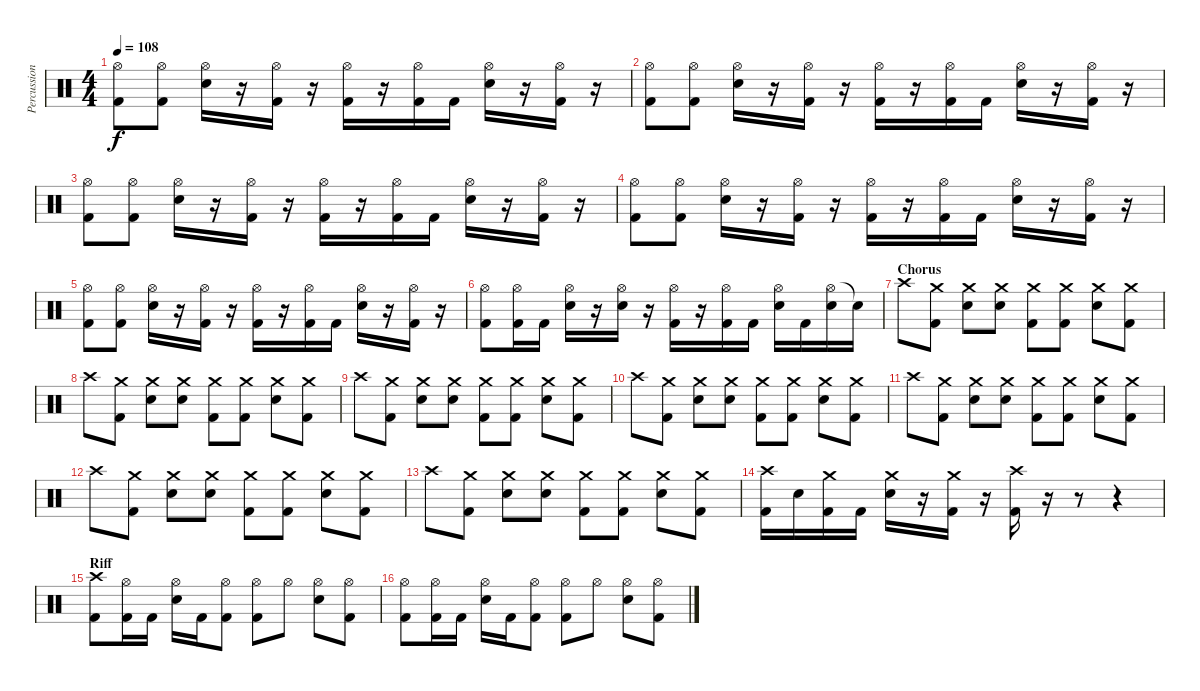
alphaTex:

\track ("Percussion" "Percussion") {instrument percussion}
\staff {score}
\articulation defaults
\ts (4 4)
\tempo 108
\clef neutral
\ks c
("Hi-Hat (open)" "Kick (hit) 2").8{dy f} ("Hi-Hat (open)" "Kick (hit) 2").8 ("Hi-Hat (open)" "Snare (hit) 2").16 r.16 ("Hi-Hat (open)" "Kick (hit) 2").16 r.16 ("Hi-Hat (open)" "Kick (hit) 2").16 r.16 ("Hi-Hat (open)" "Kick (hit) 2").16 "Kick (hit) 2".16 ("Hi-Hat (open)" "Snare (hit) 2").16 r.16 ("Hi-Hat (open)" "Kick (hit) 2").16 r.16 |
("Hi-Hat (open)" "Kick (hit) 2").8 ("Hi-Hat (open)" "Kick (hit) 2").8 ("Hi-Hat (open)" "Snare (hit) 2").16 r.16 ("Hi-Hat (open)" "Kick (hit) 2").16 r.16 ("Hi-Hat (open)" "Kick (hit) 2").16 r.16 ("Hi-Hat (open)" "Kick (hit) 2").16 "Kick (hit) 2".16 ("Hi-Hat (open)" "Snare (hit) 2").16 r.16 ("Hi-Hat (open)" "Kick (hit) 2").16 r.16 |
("Hi-Hat (open)" "Kick (hit) 2").8 ("Hi-Hat (open)" "Kick (hit) 2").8 ("Hi-Hat (open)" "Snare (hit) 2").16 r.16 ("Hi-Hat (open)" "Kick (hit) 2").16 r.16 ("Hi-Hat (open)" "Kick (hit) 2").16 r.16 ("Hi-Hat (open)" "Kick (hit) 2").16 "Kick (hit) 2".16 ("Hi-Hat (open)" "Snare (hit) 2").16 r.16 ("Hi-Hat (open)" "Kick (hit) 2").16 r.16 |
("Hi-Hat (open)" "Kick (hit) 2").8 ("Hi-Hat (open)" "Kick (hit) 2").8 ("Hi-Hat (open)" "Snare (hit) 2").16 r.16 ("Hi-Hat (open)" "Kick (hit) 2").16 r.16 ("Hi-Hat (open)" "Kick (hit) 2").16 r.16 ("Hi-Hat (open)" "Kick (hit) 2").16 "Kick (hit) 2".16 ("Hi-Hat (open)" "Snare (hit) 2").16 r.16 ("Hi-Hat (open)" "Kick (hit) 2").16 r.16 |
("Hi-Hat (open)" "Kick (hit) 2").8 ("Hi-Hat (open)" "Kick (hit) 2").8 ("Hi-Hat (open)" "Snare (hit) 2").16 r.16 ("Hi-Hat (open)" "Kick (hit) 2").16 r.16 ("Hi-Hat (open)" "Kick (hit) 2").16 r.16 ("Hi-Hat (open)" "Kick (hit) 2").16 "Kick (hit) 2".16 ("Hi-Hat (open)" "Snare (hit) 2").16 r.16 ("Hi-Hat (open)" "Kick (hit) 2").16 r.16 |
("Hi-Hat (open)" "Kick (hit) 2").8 ("Hi-Hat (open)" "Kick (hit) 2").16 "Kick (hit) 2".16 ("Hi-Hat (open)" "Snare (hit) 2").16 r.16 ("Hi-Hat (open)" "Snare (hit) 2").16 r.16 ("Hi-Hat (open)" "Kick (hit) 2").16 r.16 ("Hi-Hat (open)" "Kick (hit) 2").16 "Kick (hit) 2".16 ("Hi-Hat (open)" "Snare (hit) 2").16 "Kick (hit) 2".16 ("Hi-Hat (open)" "Snare (hit) 2").16 "Snare (hit)"{t}.16 |
\section ("" "Chorus")
"Crash high (hit)".8 ("Crash medium (hit)" "Kick (hit) 2").8 ("Crash medium (hit)" "Snare (hit) 2").8 ("Crash medium (hit)" "Snare (hit) 2").8 ("Crash medium (hit)" "Kick (hit) 2").8 ("Crash medium (hit)" "Kick (hit) 2").8 ("Crash medium (hit)" "Snare (hit) 2").8 ("Crash medium (hit)" "Kick (hit) 2").8 |
"Crash high (hit)".8 ("Crash medium (hit)" "Kick (hit) 2").8 ("Crash medium (hit)" "Snare (hit) 2").8 ("Crash medium (hit)" "Snare (hit) 2").8 ("Crash medium (hit)" "Kick (hit) 2").8 ("Crash medium (hit)" "Kick (hit) 2").8 ("Crash medium (hit)" "Snare (hit) 2").8 ("Crash medium (hit)" "Kick (hit) 2").8 |
"Crash high (hit)".8 ("Crash medium (hit)" "Kick (hit) 2").8 ("Crash medium (hit)" "Snare (hit) 2").8 ("Crash medium (hit)" "Snare (hit) 2").8 ("Crash medium (hit)" "Kick (hit) 2").8 ("Crash medium (hit)" "Kick (hit) 2").8 ("Crash medium (hit)" "Snare (hit) 2").8 ("Crash medium (hit)" "Kick (hit) 2").8 |
"Crash high (hit)".8 ("Crash medium (hit)" "Kick (hit) 2").8 ("Crash medium (hit)" "Snare (hit) 2").8 ("Crash medium (hit)" "Snare (hit) 2").8 ("Crash medium (hit)" "Kick (hit) 2").8 ("Crash medium (hit)" "Kick (hit) 2").8 ("Crash medium (hit)" "Snare (hit) 2").8 ("Crash medium (hit)" "Kick (hit) 2").8 |
"Crash high (hit)".8 ("Crash medium (hit)" "Kick (hit) 2").8 ("Crash medium (hit)" "Snare (hit) 2").8 ("Crash medium (hit)" "Snare (hit) 2").8 ("Crash medium (hit)" "Kick (hit) 2").8 ("Crash medium (hit)" "Kick (hit) 2").8 ("Crash medium (hit)" "Snare (hit) 2").8 ("Crash medium (hit)" "Kick (hit) 2").8 |
"Crash high (hit)".8 ("Crash medium (hit)" "Kick (hit) 2").8 ("Crash medium (hit)" "Snare (hit) 2").8 ("Crash medium (hit)" "Snare (hit) 2").8 ("Crash medium (hit)" "Kick (hit) 2").8 ("Crash medium (hit)" "Kick (hit) 2").8 ("Crash medium (hit)" "Snare (hit) 2").8 ("Crash medium (hit)" "Kick (hit) 2").8 |
"Crash high (hit)".8 ("Crash medium (hit)" "Kick (hit) 2").8 ("Crash medium (hit)" "Snare (hit) 2").8 ("Crash medium (hit)" "Snare (hit) 2").8 ("Crash medium (hit)" "Kick (hit) 2").8 ("Crash medium (hit)" "Kick (hit) 2").8 ("Crash medium (hit)" "Snare (hit) 2").8 ("Crash medium (hit)" "Kick (hit) 2").8 |
("Crash high (hit)" "Kick (hit) 2").16 "Snare (hit) 2".16 ("Crash medium (hit)" "Kick (hit) 2").16 "Kick (hit) 2".16 ("Crash medium (hit)" "Snare (hit) 2").16 r.16 ("Crash medium (hit)" "Kick (hit) 2").16 r.16 ("Crash high (hit)" "Kick (hit) 2").16 r.16 r.8 r.4 |
\section ("" "Riff")
("Crash high (hit)" "Kick (hit) 2").8 ("Hi-Hat (open)" "Kick (hit) 2").16 "Kick (hit) 2".16 ("Hi-Hat (open)" "Snare (hit) 2").16 "Kick (hit) 2".16 ("Hi-Hat (open)" "Kick (hit) 2").8 ("Hi-Hat (open)" "Kick (hit) 2").8 "Hi-Hat (open)".8 ("Hi-Hat (open)" "Snare (hit) 2").8 ("Hi-Hat (open)" "Kick (hit) 2").8 |
("Hi-Hat (open)" "Kick (hit) 2").8 ("Hi-Hat (open)" "Kick (hit) 2").16 "Kick (hit) 2".16 ("Hi-Hat (open)" "Snare (hit) 2").16 "Kick (hit) 2".16 ("Hi-Hat (open)" "Kick (hit) 2").8 ("Hi-Hat (open)" "Kick (hit) 2").8 "Hi-Hat (open)".8 ("Hi-Hat (open)" "Snare (hit) 2").8 ("Hi-Hat (open)" "Kick (hit) 2").8
